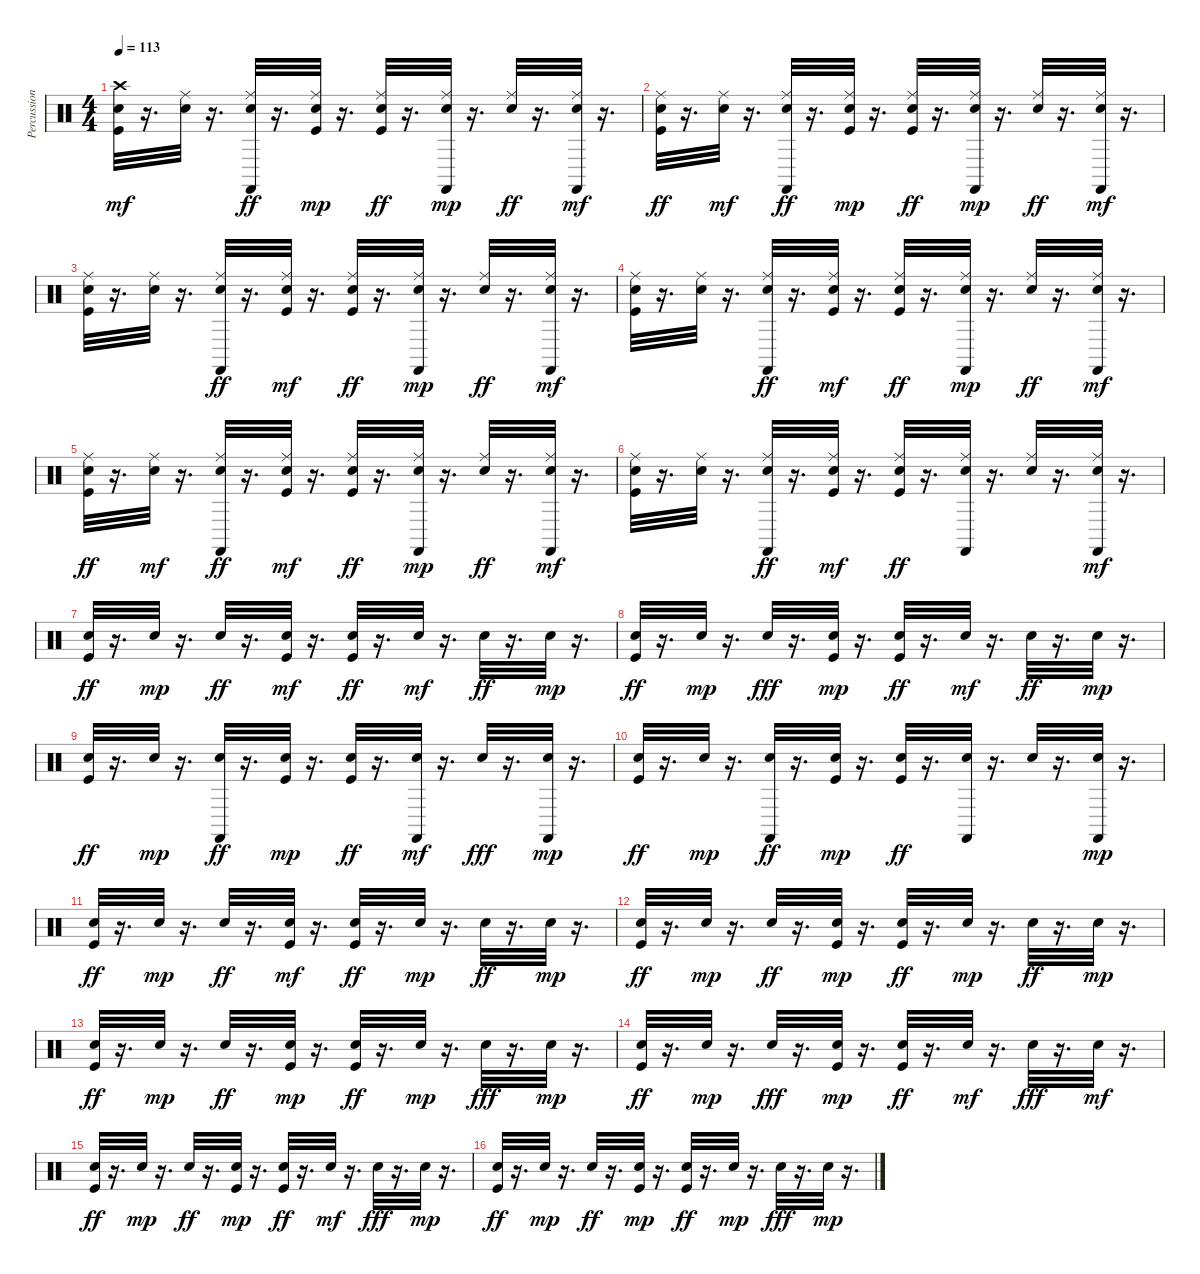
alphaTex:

\track ("Percussions" "Percussion") {instrument percussion}
\staff {score}
\articulation defaults
\ts (4 4)
\tempo 113
\clef neutral
\ks c
("Kick (hit)" "Snare (hit) 2" "Crash high (hit)").32{dy mf} r.16{d} ("Snare (hit) 2" "Ride (middle)").32 r.16{d} ("Hand Clap (hit)" "Ride (middle)" "Castanets (hit)").32{dy ff} r.16{d} ("Kick (hit)" "Snare (hit) 2" "Ride (middle)").32{dy mp} r.16{d} ("Kick (hit)" "Snare (hit) 2" "Ride (middle)").32{dy ff} r.16{d} ("Snare (hit) 2" "Ride (middle)" "Castanets (hit)").32{dy mp} r.16{d} ("Hand Clap (hit)" "Ride (middle)").32{dy ff} r.16{d} ("Snare (hit) 2" "Ride (middle)" "Castanets (hit)").32{dy mf} r.16{d} |
("Kick (hit)" "Snare (hit) 2" "Ride (middle)").32{dy ff} r.16{d} ("Snare (hit) 2" "Ride (middle)").32{dy mf} r.16{d} ("Hand Clap (hit)" "Ride (middle)" "Castanets (hit)").32{dy ff} r.16{d} ("Kick (hit)" "Snare (hit) 2" "Ride (middle)").32{dy mp} r.16{d} ("Kick (hit)" "Snare (hit) 2" "Ride (middle)").32{dy ff} r.16{d} ("Snare (hit) 2" "Ride (middle)" "Castanets (hit)").32{dy mp} r.16{d} ("Hand Clap (hit)" "Ride (middle)").32{dy ff} r.16{d} ("Snare (hit) 2" "Ride (middle)" "Castanets (hit)").32{dy mf} r.16{d} |
("Kick (hit)" "Snare (hit) 2" "Ride (middle)").32 r.16{d} ("Snare (hit) 2" "Ride (middle)").32 r.16{d} ("Hand Clap (hit)" "Ride (middle)" "Castanets (hit)").32{dy ff} r.16{d} ("Kick (hit)" "Snare (hit) 2" "Ride (middle)").32{dy mf} r.16{d} ("Kick (hit)" "Snare (hit) 2" "Ride (middle)").32{dy ff} r.16{d} ("Snare (hit) 2" "Ride (middle)" "Castanets (hit)").32{dy mp} r.16{d} ("Hand Clap (hit)" "Ride (middle)").32{dy ff} r.16{d} ("Snare (hit) 2" "Ride (middle)" "Castanets (hit)").32{dy mf} r.16{d} |
("Kick (hit)" "Snare (hit) 2" "Ride (middle)").32 r.16{d} ("Snare (hit) 2" "Ride (middle)").32 r.16{d} ("Hand Clap (hit)" "Ride (middle)" "Castanets (hit)").32{dy ff} r.16{d} ("Kick (hit)" "Snare (hit) 2" "Ride (middle)").32{dy mf} r.16{d} ("Kick (hit)" "Snare (hit) 2" "Ride (middle)").32{dy ff} r.16{d} ("Snare (hit) 2" "Ride (middle)" "Castanets (hit)").32{dy mp} r.16{d} ("Hand Clap (hit)" "Ride (middle)").32{dy ff} r.16{d} ("Snare (hit) 2" "Ride (middle)" "Castanets (hit)").32{dy mf} r.16{d} |
("Kick (hit)" "Snare (hit) 2" "Ride (middle)").32{dy ff} r.16{d} ("Snare (hit) 2" "Ride (middle)").32{dy mf} r.16{d} ("Hand Clap (hit)" "Ride (middle)" "Castanets (hit)").32{dy ff} r.16{d} ("Kick (hit)" "Snare (hit) 2" "Ride (middle)").32{dy mf} r.16{d} ("Kick (hit)" "Snare (hit) 2" "Ride (middle)").32{dy ff} r.16{d} ("Snare (hit) 2" "Ride (middle)" "Castanets (hit)").32{dy mp} r.16{d} ("Hand Clap (hit)" "Ride (middle)").32{dy ff} r.16{d} ("Snare (hit) 2" "Ride (middle)" "Castanets (hit)").32{dy mf} r.16{d} |
("Kick (hit)" "Snare (hit) 2" "Ride (middle)").32 r.16{d} ("Snare (hit) 2" "Ride (middle)").32 r.16{d} ("Hand Clap (hit)" "Ride (middle)" "Castanets (hit)").32{dy ff} r.16{d} ("Kick (hit)" "Snare (hit) 2" "Ride (middle)").32{dy mf} r.16{d} ("Kick (hit)" "Snare (hit) 2" "Ride (middle)").32{dy ff} r.16{d} ("Snare (hit) 2" "Ride (middle)" "Castanets (hit)").32 r.16{d} ("Hand Clap (hit)" "Ride (middle)").32 r.16{d} ("Snare (hit) 2" "Ride (middle)" "Castanets (hit)").32{dy mf} r.16{d} |
("Kick (hit)" "Snare (hit) 2").32{dy ff} r.16{d} "Snare (hit) 2".32{dy mp} r.16{d} "Hand Clap (hit)".32{dy ff} r.16{d} ("Kick (hit)" "Snare (hit) 2").32{dy mf} r.16{d} ("Kick (hit)" "Snare (hit) 2").32{dy ff} r.16{d} "Snare (hit) 2".32{dy mf} r.16{d} "Hand Clap (hit)".32{dy ff} r.16{d} "Snare (hit) 2".32{dy mp} r.16{d} |
("Kick (hit)" "Snare (hit) 2").32{dy ff} r.16{d} "Snare (hit) 2".32{dy mp} r.16{d} "Hand Clap (hit)".32{dy fff} r.16{d} ("Kick (hit)" "Snare (hit) 2").32{dy mp} r.16{d} ("Kick (hit)" "Snare (hit) 2").32{dy ff} r.16{d} "Snare (hit) 2".32{dy mf} r.16{d} "Hand Clap (hit)".32{dy ff} r.16{d} "Snare (hit) 2".32{dy mp} r.16{d} |
("Kick (hit)" "Snare (hit) 2").32{dy ff} r.16{d} "Snare (hit) 2".32{dy mp} r.16{d} ("Hand Clap (hit)" "Castanets (hit)").32{dy ff} r.16{d} ("Kick (hit)" "Snare (hit) 2").32{dy mp} r.16{d} ("Kick (hit)" "Snare (hit) 2").32{dy ff} r.16{d} ("Snare (hit) 2" "Castanets (hit)").32{dy mf} r.16{d} "Hand Clap (hit)".32{dy fff} r.16{d} ("Snare (hit) 2" "Castanets (hit)").32{dy mp} r.16{d} |
("Kick (hit)" "Snare (hit) 2").32{dy ff} r.16{d} "Snare (hit) 2".32{dy mp} r.16{d} ("Hand Clap (hit)" "Castanets (hit)").32{dy ff} r.16{d} ("Kick (hit)" "Snare (hit) 2").32{dy mp} r.16{d} ("Kick (hit)" "Snare (hit) 2").32{dy ff} r.16{d} ("Snare (hit) 2" "Castanets (hit)").32 r.16{d} "Hand Clap (hit)".32 r.16{d} ("Snare (hit) 2" "Castanets (hit)").32{dy mp} r.16{d} |
("Kick (hit)" "Snare (hit) 2").32{dy ff} r.16{d} "Snare (hit) 2".32{dy mp} r.16{d} "Hand Clap (hit)".32{dy ff} r.16{d} ("Kick (hit)" "Snare (hit) 2").32{dy mf} r.16{d} ("Kick (hit)" "Snare (hit) 2").32{dy ff} r.16{d} "Snare (hit) 2".32{dy mp} r.16{d} "Hand Clap (hit)".32{dy ff} r.16{d} "Snare (hit) 2".32{dy mp} r.16{d} |
("Kick (hit)" "Snare (hit) 2").32{dy ff} r.16{d} "Snare (hit) 2".32{dy mp} r.16{d} "Hand Clap (hit)".32{dy ff} r.16{d} ("Kick (hit)" "Snare (hit) 2").32{dy mp} r.16{d} ("Kick (hit)" "Snare (hit) 2").32{dy ff} r.16{d} "Snare (hit) 2".32{dy mp} r.16{d} "Hand Clap (hit)".32{dy ff} r.16{d} "Snare (hit) 2".32{dy mp} r.16{d} |
("Kick (hit)" "Snare (hit) 2").32{dy ff} r.16{d} "Snare (hit) 2".32{dy mp} r.16{d} "Hand Clap (hit)".32{dy ff} r.16{d} ("Kick (hit)" "Snare (hit) 2").32{dy mp} r.16{d} ("Kick (hit)" "Snare (hit) 2").32{dy ff} r.16{d} "Snare (hit) 2".32{dy mp} r.16{d} "Hand Clap (hit)".32{dy fff} r.16{d} "Snare (hit) 2".32{dy mp} r.16{d} |
("Kick (hit)" "Snare (hit) 2").32{dy ff} r.16{d} "Snare (hit) 2".32{dy mp} r.16{d} "Hand Clap (hit)".32{dy fff} r.16{d} ("Kick (hit)" "Snare (hit) 2").32{dy mp} r.16{d} ("Kick (hit)" "Snare (hit) 2").32{dy ff} r.16{d} "Snare (hit) 2".32{dy mf} r.16{d} "Hand Clap (hit)".32{dy fff} r.16{d} "Snare (hit) 2".32{dy mf} r.16{d} |
("Kick (hit)" "Snare (hit) 2").32{dy ff} r.16{d} "Snare (hit) 2".32{dy mp} r.16{d} "Hand Clap (hit)".32{dy ff} r.16{d} ("Kick (hit)" "Snare (hit) 2").32{dy mp} r.16{d} ("Kick (hit)" "Snare (hit) 2").32{dy ff} r.16{d} "Snare (hit) 2".32{dy mf} r.16{d} "Hand Clap (hit)".32{dy fff} r.16{d} "Snare (hit) 2".32{dy mp} r.16{d} |
("Kick (hit)" "Snare (hit) 2").32{dy ff} r.16{d} "Snare (hit) 2".32{dy mp} r.16{d} "Hand Clap (hit)".32{dy ff} r.16{d} ("Kick (hit)" "Snare (hit) 2").32{dy mp} r.16{d} ("Kick (hit)" "Snare (hit) 2").32{dy ff} r.16{d} "Snare (hit) 2".32{dy mp} r.16{d} "Hand Clap (hit)".32{dy fff} r.16{d} "Snare (hit) 2".32{dy mp} r.16{d}
